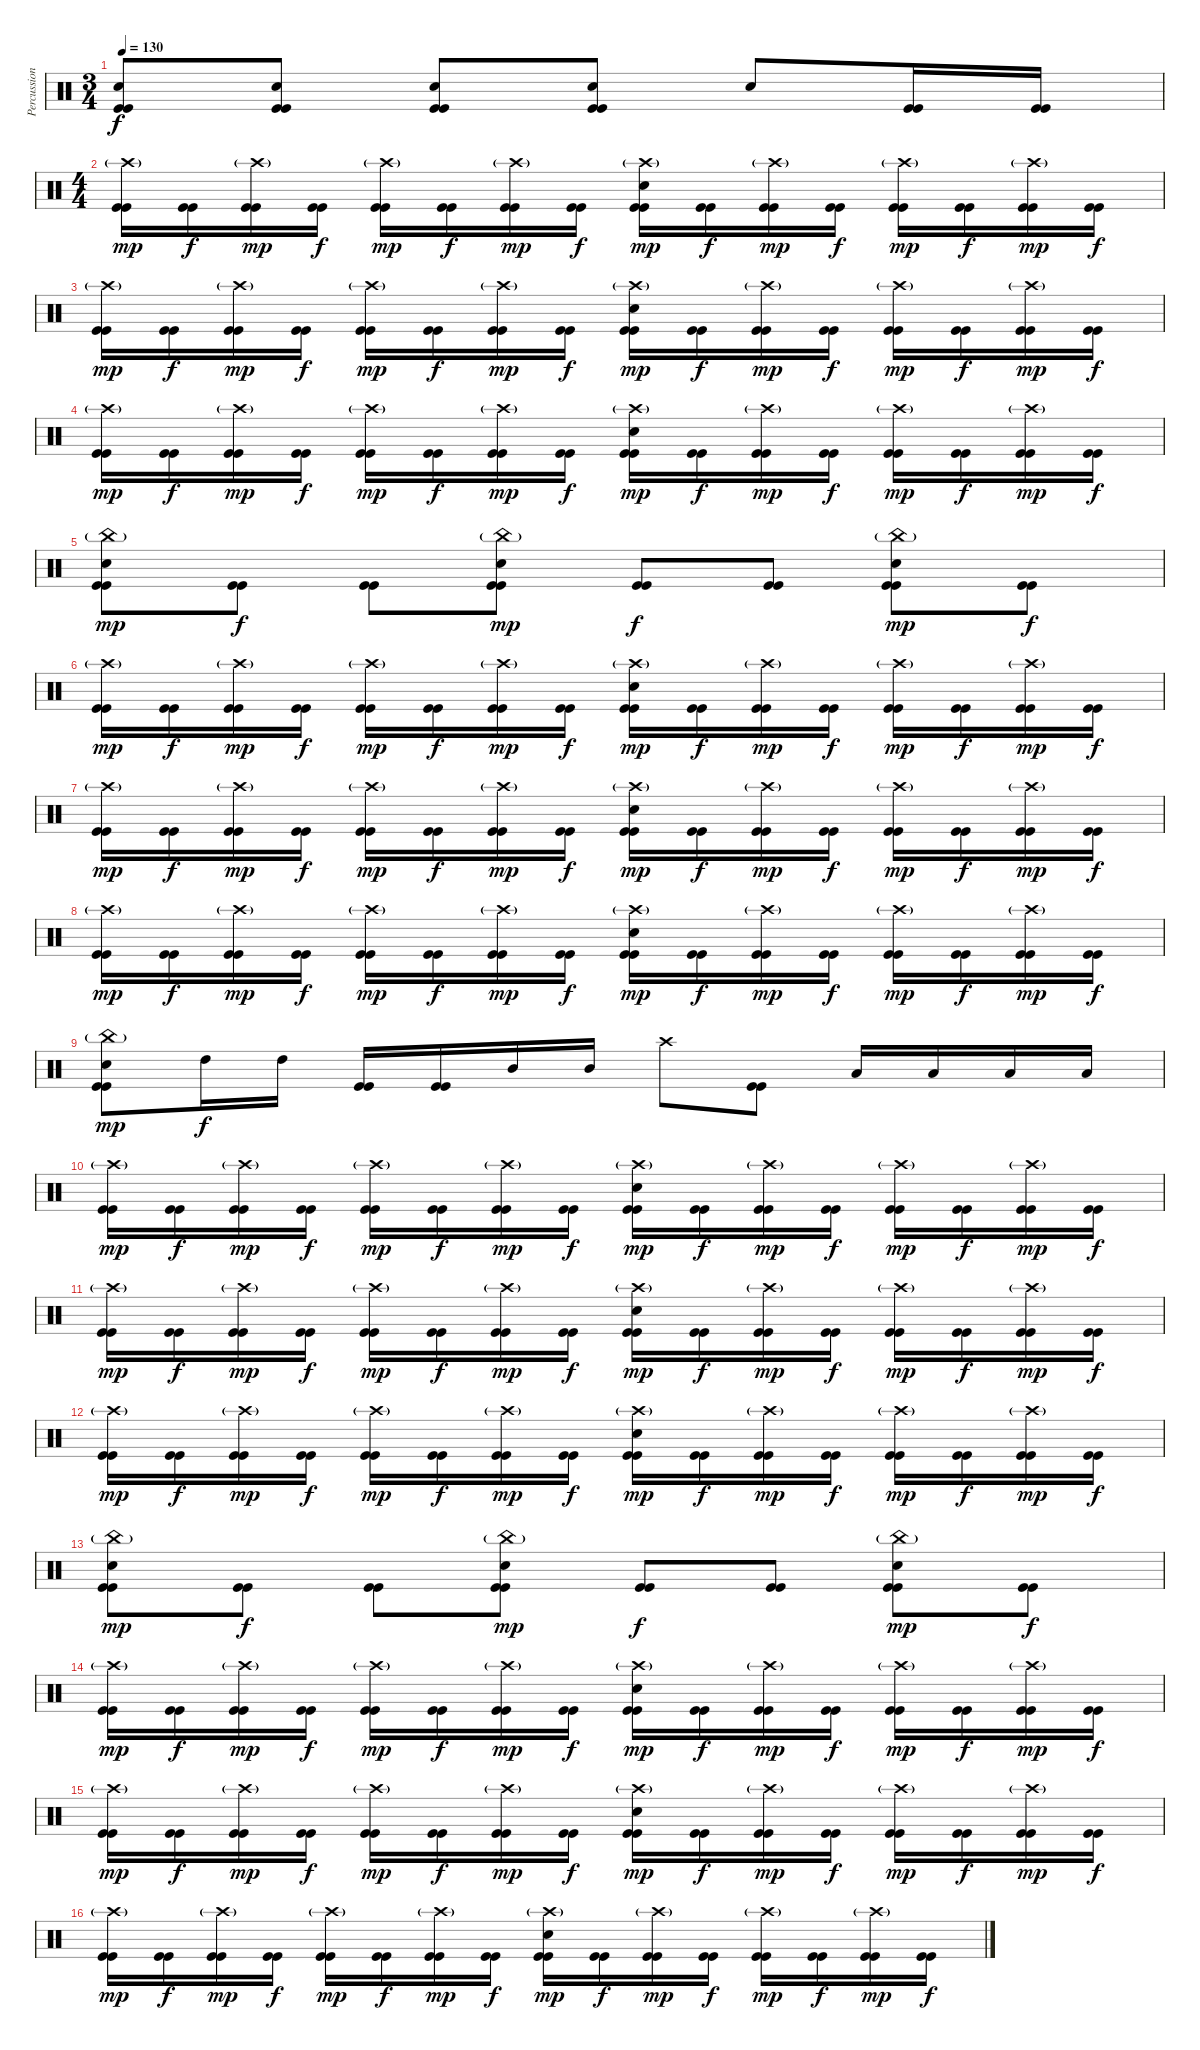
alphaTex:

\track ("Percussions" "Percussion") {instrument percussion}
\staff {score}
\articulation defaults
\ts (3 4)
\tempo 130
\clef neutral
\ks c
("Electric Snare (hit)" "Kick (hit)" "Kick (hit)").8{dy f} ("Electric Snare (hit)" "Kick (hit)" "Kick (hit)").8 ("Electric Snare (hit)" "Kick (hit)" "Kick (hit)").8 ("Electric Snare (hit)" "Kick (hit)" "Kick (hit)").8 "Electric Snare (hit)".8 ("Kick (hit)" "Kick (hit)").16 ("Kick (hit)" "Kick (hit)").16 |
\ts (4 4)
("Crash high (hit)"{g} "Kick (hit)" "Kick (hit)").16{dy mp} ("Kick (hit)" "Kick (hit)").16{dy f} ("Crash high (hit)"{g} "Kick (hit)" "Kick (hit)").16{dy mp} ("Kick (hit)" "Kick (hit)").16{dy f} ("Crash high (hit)"{g} "Kick (hit)" "Kick (hit)").16{dy mp} ("Kick (hit)" "Kick (hit)").16{dy f} ("Crash high (hit)"{g} "Kick (hit)" "Kick (hit)").16{dy mp} ("Kick (hit)" "Kick (hit)").16{dy f} ("Crash high (hit)"{g} "Electric Snare (hit)" "Kick (hit)" "Kick (hit)").16{dy mp} ("Kick (hit)" "Kick (hit)").16{dy f} ("Crash high (hit)"{g} "Kick (hit)" "Kick (hit)").16{dy mp} ("Kick (hit)" "Kick (hit)").16{dy f} ("Crash high (hit)"{g} "Kick (hit)" "Kick (hit)").16{dy mp} ("Kick (hit)" "Kick (hit)").16{dy f} ("Crash high (hit)"{g} "Kick (hit)" "Kick (hit)").16{dy mp} ("Kick (hit)" "Kick (hit)").16{dy f} |
("Crash high (hit)"{g} "Kick (hit)" "Kick (hit)").16{dy mp} ("Kick (hit)" "Kick (hit)").16{dy f} ("Crash high (hit)"{g} "Kick (hit)" "Kick (hit)").16{dy mp} ("Kick (hit)" "Kick (hit)").16{dy f} ("Crash high (hit)"{g} "Kick (hit)" "Kick (hit)").16{dy mp} ("Kick (hit)" "Kick (hit)").16{dy f} ("Crash high (hit)"{g} "Kick (hit)" "Kick (hit)").16{dy mp} ("Kick (hit)" "Kick (hit)").16{dy f} ("Crash high (hit)"{g} "Electric Snare (hit)" "Kick (hit)" "Kick (hit)").16{dy mp} ("Kick (hit)" "Kick (hit)").16{dy f} ("Crash high (hit)"{g} "Kick (hit)" "Kick (hit)").16{dy mp} ("Kick (hit)" "Kick (hit)").16{dy f} ("Crash high (hit)"{g} "Kick (hit)" "Kick (hit)").16{dy mp} ("Kick (hit)" "Kick (hit)").16{dy f} ("Crash high (hit)"{g} "Kick (hit)" "Kick (hit)").16{dy mp} ("Kick (hit)" "Kick (hit)").16{dy f} |
("Crash high (hit)"{g} "Kick (hit)" "Kick (hit)").16{dy mp} ("Kick (hit)" "Kick (hit)").16{dy f} ("Crash high (hit)"{g} "Kick (hit)" "Kick (hit)").16{dy mp} ("Kick (hit)" "Kick (hit)").16{dy f} ("Crash high (hit)"{g} "Kick (hit)" "Kick (hit)").16{dy mp} ("Kick (hit)" "Kick (hit)").16{dy f} ("Crash high (hit)"{g} "Kick (hit)" "Kick (hit)").16{dy mp} ("Kick (hit)" "Kick (hit)").16{dy f} ("Crash high (hit)"{g} "Electric Snare (hit)" "Kick (hit)" "Kick (hit)").16{dy mp} ("Kick (hit)" "Kick (hit)").16{dy f} ("Crash high (hit)"{g} "Kick (hit)" "Kick (hit)").16{dy mp} ("Kick (hit)" "Kick (hit)").16{dy f} ("Crash high (hit)"{g} "Kick (hit)" "Kick (hit)").16{dy mp} ("Kick (hit)" "Kick (hit)").16{dy f} ("Crash high (hit)"{g} "Kick (hit)" "Kick (hit)").16{dy mp} ("Kick (hit)" "Kick (hit)").16{dy f} |
("China (hit)"{g} "Electric Snare (hit)" "Kick (hit)" "Kick (hit)").8{dy mp} ("Kick (hit)" "Kick (hit)").8{dy f} ("Kick (hit)" "Kick (hit)").8 ("China (hit)"{g} "Electric Snare (hit)" "Kick (hit)" "Kick (hit)").8{dy mp} ("Kick (hit)" "Kick (hit)").8{dy f} ("Kick (hit)" "Kick (hit)").8 ("China (hit)"{g} "Electric Snare (hit)" "Kick (hit)" "Kick (hit)").8{dy mp} ("Kick (hit)" "Kick (hit)").8{dy f} |
("Crash high (hit)"{g} "Kick (hit)" "Kick (hit)").16{dy mp} ("Kick (hit)" "Kick (hit)").16{dy f} ("Crash high (hit)"{g} "Kick (hit)" "Kick (hit)").16{dy mp} ("Kick (hit)" "Kick (hit)").16{dy f} ("Crash high (hit)"{g} "Kick (hit)" "Kick (hit)").16{dy mp} ("Kick (hit)" "Kick (hit)").16{dy f} ("Crash high (hit)"{g} "Kick (hit)" "Kick (hit)").16{dy mp} ("Kick (hit)" "Kick (hit)").16{dy f} ("Crash high (hit)"{g} "Electric Snare (hit)" "Kick (hit)" "Kick (hit)").16{dy mp} ("Kick (hit)" "Kick (hit)").16{dy f} ("Crash high (hit)"{g} "Kick (hit)" "Kick (hit)").16{dy mp} ("Kick (hit)" "Kick (hit)").16{dy f} ("Crash high (hit)"{g} "Kick (hit)" "Kick (hit)").16{dy mp} ("Kick (hit)" "Kick (hit)").16{dy f} ("Crash high (hit)"{g} "Kick (hit)" "Kick (hit)").16{dy mp} ("Kick (hit)" "Kick (hit)").16{dy f} |
("Crash high (hit)"{g} "Kick (hit)" "Kick (hit)").16{dy mp} ("Kick (hit)" "Kick (hit)").16{dy f} ("Crash high (hit)"{g} "Kick (hit)" "Kick (hit)").16{dy mp} ("Kick (hit)" "Kick (hit)").16{dy f} ("Crash high (hit)"{g} "Kick (hit)" "Kick (hit)").16{dy mp} ("Kick (hit)" "Kick (hit)").16{dy f} ("Crash high (hit)"{g} "Kick (hit)" "Kick (hit)").16{dy mp} ("Kick (hit)" "Kick (hit)").16{dy f} ("Crash high (hit)"{g} "Electric Snare (hit)" "Kick (hit)" "Kick (hit)").16{dy mp} ("Kick (hit)" "Kick (hit)").16{dy f} ("Crash high (hit)"{g} "Kick (hit)" "Kick (hit)").16{dy mp} ("Kick (hit)" "Kick (hit)").16{dy f} ("Crash high (hit)"{g} "Kick (hit)" "Kick (hit)").16{dy mp} ("Kick (hit)" "Kick (hit)").16{dy f} ("Crash high (hit)"{g} "Kick (hit)" "Kick (hit)").16{dy mp} ("Kick (hit)" "Kick (hit)").16{dy f} |
("Crash high (hit)"{g} "Kick (hit)" "Kick (hit)").16{dy mp} ("Kick (hit)" "Kick (hit)").16{dy f} ("Crash high (hit)"{g} "Kick (hit)" "Kick (hit)").16{dy mp} ("Kick (hit)" "Kick (hit)").16{dy f} ("Crash high (hit)"{g} "Kick (hit)" "Kick (hit)").16{dy mp} ("Kick (hit)" "Kick (hit)").16{dy f} ("Crash high (hit)"{g} "Kick (hit)" "Kick (hit)").16{dy mp} ("Kick (hit)" "Kick (hit)").16{dy f} ("Crash high (hit)"{g} "Electric Snare (hit)" "Kick (hit)" "Kick (hit)").16{dy mp} ("Kick (hit)" "Kick (hit)").16{dy f} ("Crash high (hit)"{g} "Kick (hit)" "Kick (hit)").16{dy mp} ("Kick (hit)" "Kick (hit)").16{dy f} ("Crash high (hit)"{g} "Kick (hit)" "Kick (hit)").16{dy mp} ("Kick (hit)" "Kick (hit)").16{dy f} ("Crash high (hit)"{g} "Kick (hit)" "Kick (hit)").16{dy mp} ("Kick (hit)" "Kick (hit)").16{dy f} |
("China (hit)"{g} "Electric Snare (hit)" "Kick (hit)" "Kick (hit)").8{dy mp} "High Tom (hit)".16{dy f} "High Tom (hit)".16 ("Kick (hit)" "Kick (hit)").16 ("Kick (hit)" "Kick (hit)").16 "Mid Tom (hit)".16 "Mid Tom (hit)".16 "Crash high (hit)".8 ("Kick (hit)" "Kick (hit)").8 "Low Tom (hit)".16 "Low Tom (hit)".16 "Low Tom (hit)".16 "Low Tom (hit)".16 |
("Crash high (hit)"{g} "Kick (hit)" "Kick (hit)").16{dy mp} ("Kick (hit)" "Kick (hit)").16{dy f} ("Crash high (hit)"{g} "Kick (hit)" "Kick (hit)").16{dy mp} ("Kick (hit)" "Kick (hit)").16{dy f} ("Crash high (hit)"{g} "Kick (hit)" "Kick (hit)").16{dy mp} ("Kick (hit)" "Kick (hit)").16{dy f} ("Crash high (hit)"{g} "Kick (hit)" "Kick (hit)").16{dy mp} ("Kick (hit)" "Kick (hit)").16{dy f} ("Crash high (hit)"{g} "Electric Snare (hit)" "Kick (hit)" "Kick (hit)").16{dy mp} ("Kick (hit)" "Kick (hit)").16{dy f} ("Crash high (hit)"{g} "Kick (hit)" "Kick (hit)").16{dy mp} ("Kick (hit)" "Kick (hit)").16{dy f} ("Crash high (hit)"{g} "Kick (hit)" "Kick (hit)").16{dy mp} ("Kick (hit)" "Kick (hit)").16{dy f} ("Crash high (hit)"{g} "Kick (hit)" "Kick (hit)").16{dy mp} ("Kick (hit)" "Kick (hit)").16{dy f} |
("Crash high (hit)"{g} "Kick (hit)" "Kick (hit)").16{dy mp} ("Kick (hit)" "Kick (hit)").16{dy f} ("Crash high (hit)"{g} "Kick (hit)" "Kick (hit)").16{dy mp} ("Kick (hit)" "Kick (hit)").16{dy f} ("Crash high (hit)"{g} "Kick (hit)" "Kick (hit)").16{dy mp} ("Kick (hit)" "Kick (hit)").16{dy f} ("Crash high (hit)"{g} "Kick (hit)" "Kick (hit)").16{dy mp} ("Kick (hit)" "Kick (hit)").16{dy f} ("Crash high (hit)"{g} "Electric Snare (hit)" "Kick (hit)" "Kick (hit)").16{dy mp} ("Kick (hit)" "Kick (hit)").16{dy f} ("Crash high (hit)"{g} "Kick (hit)" "Kick (hit)").16{dy mp} ("Kick (hit)" "Kick (hit)").16{dy f} ("Crash high (hit)"{g} "Kick (hit)" "Kick (hit)").16{dy mp} ("Kick (hit)" "Kick (hit)").16{dy f} ("Crash high (hit)"{g} "Kick (hit)" "Kick (hit)").16{dy mp} ("Kick (hit)" "Kick (hit)").16{dy f} |
("Crash high (hit)"{g} "Kick (hit)" "Kick (hit)").16{dy mp} ("Kick (hit)" "Kick (hit)").16{dy f} ("Crash high (hit)"{g} "Kick (hit)" "Kick (hit)").16{dy mp} ("Kick (hit)" "Kick (hit)").16{dy f} ("Crash high (hit)"{g} "Kick (hit)" "Kick (hit)").16{dy mp} ("Kick (hit)" "Kick (hit)").16{dy f} ("Crash high (hit)"{g} "Kick (hit)" "Kick (hit)").16{dy mp} ("Kick (hit)" "Kick (hit)").16{dy f} ("Crash high (hit)"{g} "Electric Snare (hit)" "Kick (hit)" "Kick (hit)").16{dy mp} ("Kick (hit)" "Kick (hit)").16{dy f} ("Crash high (hit)"{g} "Kick (hit)" "Kick (hit)").16{dy mp} ("Kick (hit)" "Kick (hit)").16{dy f} ("Crash high (hit)"{g} "Kick (hit)" "Kick (hit)").16{dy mp} ("Kick (hit)" "Kick (hit)").16{dy f} ("Crash high (hit)"{g} "Kick (hit)" "Kick (hit)").16{dy mp} ("Kick (hit)" "Kick (hit)").16{dy f} |
("China (hit)"{g} "Electric Snare (hit)" "Kick (hit)" "Kick (hit)").8{dy mp} ("Kick (hit)" "Kick (hit)").8{dy f} ("Kick (hit)" "Kick (hit)").8 ("China (hit)"{g} "Electric Snare (hit)" "Kick (hit)" "Kick (hit)").8{dy mp} ("Kick (hit)" "Kick (hit)").8{dy f} ("Kick (hit)" "Kick (hit)").8 ("China (hit)"{g} "Electric Snare (hit)" "Kick (hit)" "Kick (hit)").8{dy mp} ("Kick (hit)" "Kick (hit)").8{dy f} |
("Crash high (hit)"{g} "Kick (hit)" "Kick (hit)").16{dy mp} ("Kick (hit)" "Kick (hit)").16{dy f} ("Crash high (hit)"{g} "Kick (hit)" "Kick (hit)").16{dy mp} ("Kick (hit)" "Kick (hit)").16{dy f} ("Crash high (hit)"{g} "Kick (hit)" "Kick (hit)").16{dy mp} ("Kick (hit)" "Kick (hit)").16{dy f} ("Crash high (hit)"{g} "Kick (hit)" "Kick (hit)").16{dy mp} ("Kick (hit)" "Kick (hit)").16{dy f} ("Crash high (hit)"{g} "Electric Snare (hit)" "Kick (hit)" "Kick (hit)").16{dy mp} ("Kick (hit)" "Kick (hit)").16{dy f} ("Crash high (hit)"{g} "Kick (hit)" "Kick (hit)").16{dy mp} ("Kick (hit)" "Kick (hit)").16{dy f} ("Crash high (hit)"{g} "Kick (hit)" "Kick (hit)").16{dy mp} ("Kick (hit)" "Kick (hit)").16{dy f} ("Crash high (hit)"{g} "Kick (hit)" "Kick (hit)").16{dy mp} ("Kick (hit)" "Kick (hit)").16{dy f} |
("Crash high (hit)"{g} "Kick (hit)" "Kick (hit)").16{dy mp} ("Kick (hit)" "Kick (hit)").16{dy f} ("Crash high (hit)"{g} "Kick (hit)" "Kick (hit)").16{dy mp} ("Kick (hit)" "Kick (hit)").16{dy f} ("Crash high (hit)"{g} "Kick (hit)" "Kick (hit)").16{dy mp} ("Kick (hit)" "Kick (hit)").16{dy f} ("Crash high (hit)"{g} "Kick (hit)" "Kick (hit)").16{dy mp} ("Kick (hit)" "Kick (hit)").16{dy f} ("Crash high (hit)"{g} "Electric Snare (hit)" "Kick (hit)" "Kick (hit)").16{dy mp} ("Kick (hit)" "Kick (hit)").16{dy f} ("Crash high (hit)"{g} "Kick (hit)" "Kick (hit)").16{dy mp} ("Kick (hit)" "Kick (hit)").16{dy f} ("Crash high (hit)"{g} "Kick (hit)" "Kick (hit)").16{dy mp} ("Kick (hit)" "Kick (hit)").16{dy f} ("Crash high (hit)"{g} "Kick (hit)" "Kick (hit)").16{dy mp} ("Kick (hit)" "Kick (hit)").16{dy f} |
("Crash high (hit)"{g} "Kick (hit)" "Kick (hit)").16{dy mp} ("Kick (hit)" "Kick (hit)").16{dy f} ("Crash high (hit)"{g} "Kick (hit)" "Kick (hit)").16{dy mp} ("Kick (hit)" "Kick (hit)").16{dy f} ("Crash high (hit)"{g} "Kick (hit)" "Kick (hit)").16{dy mp} ("Kick (hit)" "Kick (hit)").16{dy f} ("Crash high (hit)"{g} "Kick (hit)" "Kick (hit)").16{dy mp} ("Kick (hit)" "Kick (hit)").16{dy f} ("Crash high (hit)"{g} "Electric Snare (hit)" "Kick (hit)" "Kick (hit)").16{dy mp} ("Kick (hit)" "Kick (hit)").16{dy f} ("Crash high (hit)"{g} "Kick (hit)" "Kick (hit)").16{dy mp} ("Kick (hit)" "Kick (hit)").16{dy f} ("Crash high (hit)"{g} "Kick (hit)" "Kick (hit)").16{dy mp} ("Kick (hit)" "Kick (hit)").16{dy f} ("Crash high (hit)"{g} "Kick (hit)" "Kick (hit)").16{dy mp} ("Kick (hit)" "Kick (hit)").16{dy f}
